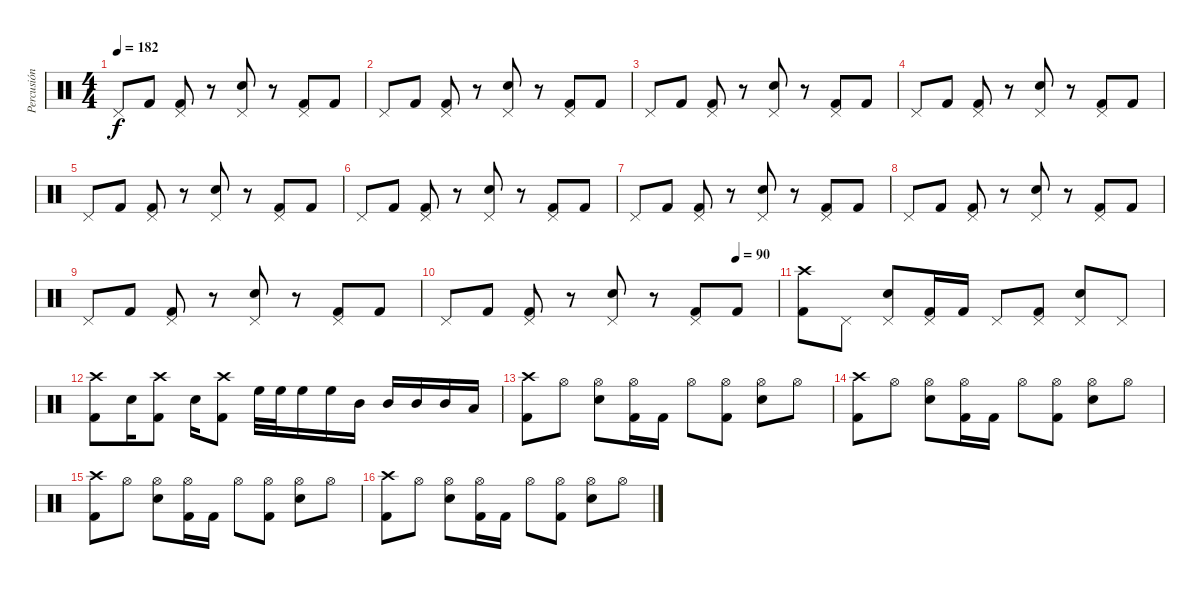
\track ("Percusión" "Percusión") {instrument percussion}
\staff {score}
\articulation defaults
\ts (4 4)
\tempo 182
\clef neutral
\ks c "Pedal Hi-Hat (hit)".8{dy f} "Kick (hit) 2".8
("Pedal Hi-Hat (hit)" "Kick (hit) 2").8 r.8 ("Pedal Hi-Hat (hit)" "Electric Snare (hit)").8 r.8 ("Pedal Hi-Hat (hit)" "Kick (hit) 2").8 "Kick (hit) 2".8 |
"Pedal Hi-Hat (hit)".8 "Kick (hit) 2".8 ("Pedal Hi-Hat (hit)" "Kick (hit) 2").8 r.8 ("Pedal Hi-Hat (hit)" "Electric Snare (hit)").8 r.8 ("Pedal Hi-Hat (hit)" "Kick (hit) 2").8 "Kick (hit) 2".8 |
"Pedal Hi-Hat (hit)".8 "Kick (hit) 2".8 ("Pedal Hi-Hat (hit)" "Kick (hit) 2").8 r.8 ("Pedal Hi-Hat (hit)" "Electric Snare (hit)").8 r.8 ("Pedal Hi-Hat (hit)" "Kick (hit) 2").8 "Kick (hit) 2".8 |
"Pedal Hi-Hat (hit)".8 "Kick (hit) 2".8 ("Pedal Hi-Hat (hit)" "Kick (hit) 2").8 r.8 ("Pedal Hi-Hat (hit)" "Electric Snare (hit)").8 r.8 ("Pedal Hi-Hat (hit)" "Kick (hit) 2").8 "Kick (hit) 2".8 |
"Pedal Hi-Hat (hit)".8 "Kick (hit) 2".8 ("Pedal Hi-Hat (hit)" "Kick (hit) 2").8 r.8 ("Pedal Hi-Hat (hit)" "Electric Snare (hit)").8 r.8 ("Pedal Hi-Hat (hit)" "Kick (hit) 2").8 "Kick (hit) 2".8 |
"Pedal Hi-Hat (hit)".8 "Kick (hit) 2".8 ("Pedal Hi-Hat (hit)" "Kick (hit) 2").8 r.8 ("Pedal Hi-Hat (hit)" "Electric Snare (hit)").8 r.8 ("Pedal Hi-Hat (hit)" "Kick (hit) 2").8 "Kick (hit) 2".8 |
"Pedal Hi-Hat (hit)".8 "Kick (hit) 2".8 ("Pedal Hi-Hat (hit)" "Kick (hit) 2").8 r.8 ("Pedal Hi-Hat (hit)" "Electric Snare (hit)").8 r.8 ("Pedal Hi-Hat (hit)" "Kick (hit) 2").8 "Kick (hit) 2".8 |
"Pedal Hi-Hat (hit)".8 "Kick (hit) 2".8 ("Pedal Hi-Hat (hit)" "Kick (hit) 2").8 r.8 ("Pedal Hi-Hat (hit)" "Electric Snare (hit)").8 r.8 ("Pedal Hi-Hat (hit)" "Kick (hit) 2").8 "Kick (hit) 2".8 |
"Pedal Hi-Hat (hit)".8 "Kick (hit) 2".8 ("Pedal Hi-Hat (hit)" "Kick (hit) 2").8 r.8 ("Pedal Hi-Hat (hit)" "Electric Snare (hit)").8 r.8 ("Pedal Hi-Hat (hit)" "Kick (hit) 2").8 "Kick (hit) 2".8 |
\tempo (90 0.875)
"Pedal Hi-Hat (hit)".8 "Kick (hit) 2".8 ("Pedal Hi-Hat (hit)" "Kick (hit) 2").8 r.8 ("Pedal Hi-Hat (hit)" "Electric Snare (hit)").8 r.8 ("Pedal Hi-Hat (hit)" "Kick (hit) 2").8 "Kick (hit) 2".8 |
("Crash high (hit)" "Kick (hit) 2").8 "Pedal Hi-Hat (hit)".8 ("Pedal Hi-Hat (hit)" "Electric Snare (hit)").8 ("Pedal Hi-Hat (hit)" "Kick (hit) 2").16 "Kick (hit) 2".16 "Pedal Hi-Hat (hit)".8 ("Pedal Hi-Hat (hit)" "Kick (hit) 2").8 ("Pedal Hi-Hat (hit)" "Electric Snare (hit)").8 "Pedal Hi-Hat (hit)".8 |
("Crash high (hit)" "Kick (hit) 2").8 "Electric Snare (hit)".16 ("Crash high (hit)" "Kick (hit) 2").8 "Electric Snare (hit)".16 ("Crash high (hit)" "Kick (hit) 2").8 "High Floor Tom (hit)".32 "High Floor Tom (hit)".32 "High Floor Tom (hit)".16 "High Floor Tom (hit)".16 "Mid Tom (hit)".16 "Mid Tom (hit)".16 "Mid Tom (hit)".16 "Mid Tom (hit)".16 "Low Tom (hit)".16 |
("Crash high (hit)" "Kick (hit) 2").8 "Hi-Hat (open)".8 ("Hi-Hat (open)" "Electric Snare (hit)").8 ("Hi-Hat (open)" "Kick (hit) 2").16 "Kick (hit) 2".16 "Hi-Hat (open)".8 ("Hi-Hat (open)" "Kick (hit) 2").8 ("Hi-Hat (open)" "Electric Snare (hit)").8 "Hi-Hat (open)".8 |
("Crash high (hit)" "Kick (hit) 2").8 "Hi-Hat (open)".8 ("Hi-Hat (open)" "Electric Snare (hit)").8 ("Hi-Hat (open)" "Kick (hit) 2").16 "Kick (hit) 2".16 "Hi-Hat (open)".8 ("Hi-Hat (open)" "Kick (hit) 2").8 ("Hi-Hat (open)" "Electric Snare (hit)").8 "Hi-Hat (open)".8 |
("Crash high (hit)" "Kick (hit) 2").8 "Hi-Hat (open)".8 ("Hi-Hat (open)" "Electric Snare (hit)").8 ("Hi-Hat (open)" "Kick (hit) 2").16 "Kick (hit) 2".16 "Hi-Hat (open)".8 ("Hi-Hat (open)" "Kick (hit) 2").8 ("Hi-Hat (open)" "Electric Snare (hit)").8 "Hi-Hat (open)".8 |
("Crash high (hit)" "Kick (hit) 2").8 "Hi-Hat (open)".8 ("Hi-Hat (open)" "Electric Snare (hit)").8 ("Hi-Hat (open)" "Kick (hit) 2").16 "Kick (hit) 2".16 "Hi-Hat (open)".8 ("Hi-Hat (open)" "Kick (hit) 2").8 ("Hi-Hat (open)" "Electric Snare (hit)").8 "Hi-Hat (open)".8
